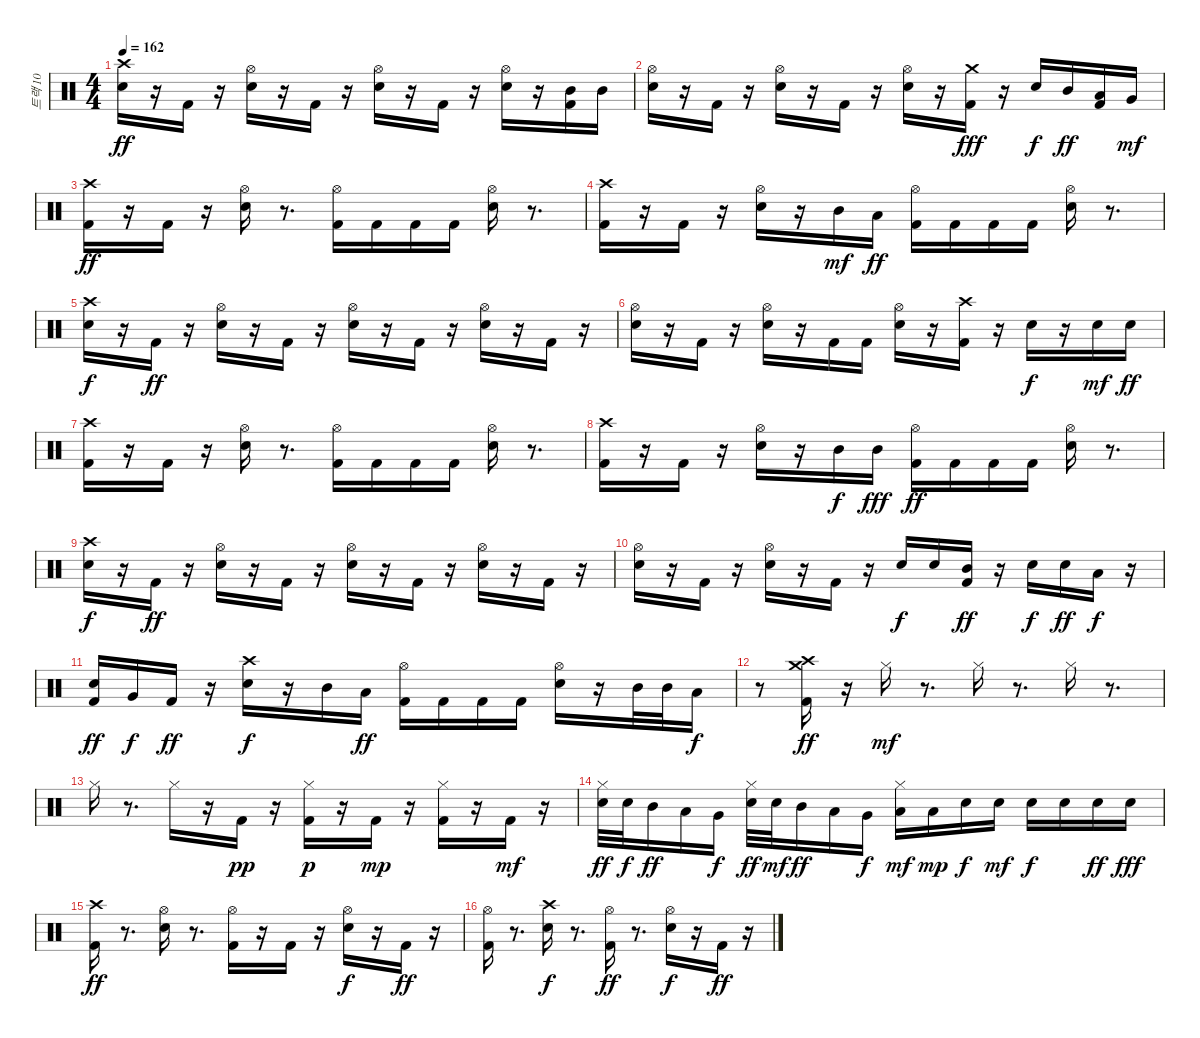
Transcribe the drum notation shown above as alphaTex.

\track ("트랙 10" "트랙 10") {instrument percussion}
\staff {score}
\articulation defaults
\ts (4 4)
\tempo 162
\clef neutral
\ks c
("Crash high (hit)" "Electric Snare (hit)").16{dy ff} r.16 "Kick (hit) 2".16 r.16 ("Hi-Hat (open)" "Electric Snare (hit)").16 r.16 "Kick (hit) 2".16 r.16 ("Hi-Hat (open)" "Electric Snare (hit)").16 r.16 "Kick (hit) 2".16 r.16 ("Hi-Hat (open)" "Electric Snare (hit)").16 r.16 ("Kick (hit) 2" "Mid Tom (hit)").16 "Mid Tom (hit)".16 |
("Hi-Hat (open)" "Electric Snare (hit)").16 r.16 "Kick (hit) 2".16 r.16 ("Hi-Hat (open)" "Electric Snare (hit)").16 r.16 "Kick (hit) 2".16 r.16 ("Hi-Hat (open)" "Electric Snare (hit)").16 r.16 ("Kick (hit) 2" "Crash medium (hit)").16{dy fff} r.16 "Electric Snare (hit)".16{dy f} "Mid Tom (hit)".16{dy ff} ("Kick (hit) 2" "Low Tom (hit)").16 "Very Low Tom (hit)".16{dy mf} |
("Kick (hit) 2" "Crash high (hit)").16{dy ff} r.16 "Kick (hit) 2".16 r.16 ("Hi-Hat (open)" "Electric Snare (hit)").16 r.8{d} ("Hi-Hat (open)" "Kick (hit) 2").16 "Kick (hit) 2".16 "Kick (hit) 2".16 "Kick (hit) 2".16 ("Hi-Hat (open)" "Electric Snare (hit)").16 r.8{d} |
("Kick (hit) 2" "Crash high (hit)").16 r.16 "Kick (hit) 2".16 r.16 ("Hi-Hat (open)" "Electric Snare (hit)").16 r.16 "Mid Tom (hit)".16{dy mf} "Low Tom (hit)".16{dy ff} ("Hi-Hat (open)" "Kick (hit) 2").16 "Kick (hit) 2".16 "Kick (hit) 2".16 "Kick (hit) 2".16 ("Hi-Hat (open)" "Electric Snare (hit)").16 r.8{d} |
("Crash high (hit)" "Electric Snare (hit)").16{dy f} r.16 "Kick (hit) 2".16{dy ff} r.16 ("Hi-Hat (open)" "Electric Snare (hit)").16 r.16 "Kick (hit) 2".16 r.16 ("Hi-Hat (open)" "Electric Snare (hit)").16 r.16 "Kick (hit) 2".16 r.16 ("Hi-Hat (open)" "Electric Snare (hit)").16 r.16 "Kick (hit) 2".16 r.16 |
("Hi-Hat (open)" "Electric Snare (hit)").16 r.16 "Kick (hit) 2".16 r.16 ("Hi-Hat (open)" "Electric Snare (hit)").16 r.16 "Kick (hit) 2".16 "Kick (hit) 2".16 ("Hi-Hat (open)" "Electric Snare (hit)").16 r.16 ("Kick (hit) 2" "Crash high (hit)").16 r.16 "Electric Snare (hit)".16{dy f} r.16 "Electric Snare (hit)".16{dy mf} "Electric Snare (hit)".16{dy ff} |
("Kick (hit) 2" "Crash high (hit)").16 r.16 "Kick (hit) 2".16 r.16 ("Hi-Hat (open)" "Electric Snare (hit)").16 r.8{d} ("Hi-Hat (open)" "Kick (hit) 2").16 "Kick (hit) 2".16 "Kick (hit) 2".16 "Kick (hit) 2".16 ("Hi-Hat (open)" "Electric Snare (hit)").16 r.8{d} |
("Kick (hit) 2" "Crash high (hit)").16 r.16 "Kick (hit) 2".16 r.16 ("Hi-Hat (open)" "Electric Snare (hit)").16 r.16 "Mid Tom (hit)".16{dy f} "Mid Tom (hit)".16{dy fff} ("Hi-Hat (open)" "Kick (hit) 2").16{dy ff} "Kick (hit) 2".16 "Kick (hit) 2".16 "Kick (hit) 2".16 ("Hi-Hat (open)" "Electric Snare (hit)").16 r.8{d} |
("Crash high (hit)" "Electric Snare (hit)").16{dy f} r.16 "Kick (hit) 2".16{dy ff} r.16 ("Hi-Hat (open)" "Electric Snare (hit)").16 r.16 "Kick (hit) 2".16 r.16 ("Hi-Hat (open)" "Electric Snare (hit)").16 r.16 "Kick (hit) 2".16 r.16 ("Hi-Hat (open)" "Electric Snare (hit)").16 r.16 "Kick (hit) 2".16 r.16 |
("Hi-Hat (open)" "Electric Snare (hit)").16 r.16 "Kick (hit) 2".16 r.16 ("Hi-Hat (open)" "Electric Snare (hit)").16 r.16 "Kick (hit) 2".16 r.16 "Electric Snare (hit)".16{dy f} "Electric Snare (hit)".16 ("Kick (hit) 2" "Mid Tom (hit)").16{dy ff} r.16 "Electric Snare (hit)".16{dy f} "Electric Snare (hit)".16{dy ff} "Low Tom (hit)".16{dy f} r.16 |
("Kick (hit) 2" "Electric Snare (hit)").16{dy ff} "Very Low Tom (hit)".16{dy f} "Kick (hit) 2".16{dy ff} r.16 ("Crash high (hit)" "Electric Snare (hit)").16{dy f} r.16 "Mid Tom (hit)".16 "Low Tom (hit)".16{dy ff} ("Hi-Hat (open)" "Kick (hit) 2").16 "Kick (hit) 2".16 "Kick (hit) 2".16 "Kick (hit) 2".16 ("Hi-Hat (open)" "Electric Snare (hit)").16 r.16 "Mid Tom (hit)".32 "Mid Tom (hit)".32 "Low Tom (hit)".16{dy f} |
r.8 ("Kick (hit) 2" "Crash high (hit)" "Crash medium (hit)").16{dy ff} r.16 "Hi-Hat (closed)".16{dy mf} r.8{d} "Hi-Hat (closed)".16 r.8{d} "Hi-Hat (closed)".16 r.8{d} |
"Hi-Hat (closed)".16 r.8{d} "Hi-Hat (closed)".16 r.16 "Kick (hit) 2".16{dy pp} r.16 ("Hi-Hat (closed)" "Kick (hit) 2").16{dy p} r.16 "Kick (hit) 2".16{dy mp} r.16 ("Hi-Hat (closed)" "Kick (hit) 2").16 r.16 "Kick (hit) 2".16{dy mf} r.16 |
("Hi-Hat (closed)" "Electric Snare (hit)").32{dy ff} "Electric Snare (hit)".32{dy f} "Mid Tom (hit)".16{dy ff} "Low Tom (hit)".16 "Very Low Tom (hit)".16{dy f} ("Hi-Hat (closed)" "Electric Snare (hit)").32{dy ff} "Electric Snare (hit)".32{dy mf} "Mid Tom (hit)".16{dy ff} "Low Tom (hit)".16 "Very Low Tom (hit)".16{dy f} ("Hi-Hat (closed)" "Low Floor Tom (hit)").16{dy mf} "Low Tom (hit)".16{dy mp} "Electric Snare (hit)".16{dy f} "Electric Snare (hit)".16{dy mf} "Electric Snare (hit)".16{dy f} "Electric Snare (hit)".16 "Electric Snare (hit)".16{dy ff} "Electric Snare (hit)".16{dy fff} |
("Kick (hit) 2" "Crash high (hit)").16{dy ff} r.8{d} ("Hi-Hat (open)" "Electric Snare (hit)").16 r.8{d} ("Hi-Hat (open)" "Kick (hit) 2").16 r.16 "Kick (hit) 2".16 r.16 ("Hi-Hat (open)" "Electric Snare (hit)").16{dy f} r.16 "Kick (hit) 2".16{dy ff} r.16 |
("Hi-Hat (open)" "Kick (hit) 2").16 r.8{d} ("Crash high (hit)" "Electric Snare (hit)").16{dy f} r.8{d} ("Hi-Hat (open)" "Kick (hit) 2").16{dy ff} r.8{d} ("Hi-Hat (open)" "Electric Snare (hit)").16{dy f} r.16 "Kick (hit) 2".16{dy ff} r.16
